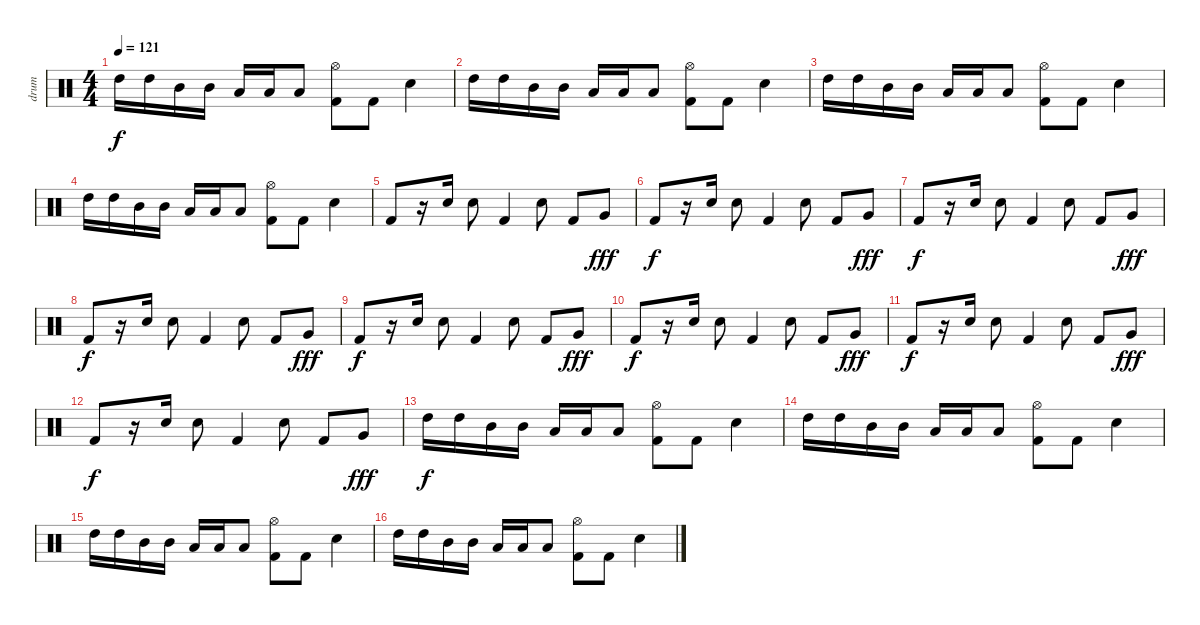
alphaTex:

\track ("drum" "drum") {instrument percussion}
\staff {score}
\articulation defaults
\ts (4 4)
\tempo 121
\clef neutral
\ks c "High Tom (hit)".16{dy f} "High Tom (hit)".16 "Mid Tom (hit)".16 "Mid Tom (hit)".16 "Low Tom (hit)".16 "Low Tom (hit)".16 "Low Tom (hit)".8
("Hi-Hat (open)" "Kick (hit) 2").8 "Kick (hit) 2".8 "Electric Snare (hit)".4 |
"High Tom (hit)".16 "High Tom (hit)".16 "Mid Tom (hit)".16 "Mid Tom (hit)".16 "Low Tom (hit)".16 "Low Tom (hit)".16 "Low Tom (hit)".8 ("Hi-Hat (open)" "Kick (hit) 2").8 "Kick (hit) 2".8 "Electric Snare (hit)".4 |
"High Tom (hit)".16 "High Tom (hit)".16 "Mid Tom (hit)".16 "Mid Tom (hit)".16 "Low Tom (hit)".16 "Low Tom (hit)".16 "Low Tom (hit)".8 ("Hi-Hat (open)" "Kick (hit) 2").8 "Kick (hit) 2".8 "Electric Snare (hit)".4 |
"High Tom (hit)".16 "High Tom (hit)".16 "Mid Tom (hit)".16 "Mid Tom (hit)".16 "Low Tom (hit)".16 "Low Tom (hit)".16 "Low Tom (hit)".8 ("Hi-Hat (open)" "Kick (hit) 2").8 "Kick (hit) 2".8 "Electric Snare (hit)".4 |
"Kick (hit) 2".8 r.16 "Electric Snare (hit)".16 "Electric Snare (hit)".8 "Kick (hit) 2".4 "Electric Snare (hit)".8 "Kick (hit) 2".8 "Very Low Tom (hit)".8{dy fff} |
"Kick (hit) 2".8{dy f} r.16 "Electric Snare (hit)".16 "Electric Snare (hit)".8 "Kick (hit) 2".4 "Electric Snare (hit)".8 "Kick (hit) 2".8 "Very Low Tom (hit)".8{dy fff} |
"Kick (hit) 2".8{dy f} r.16 "Electric Snare (hit)".16 "Electric Snare (hit)".8 "Kick (hit) 2".4 "Electric Snare (hit)".8 "Kick (hit) 2".8 "Very Low Tom (hit)".8{dy fff} |
"Kick (hit) 2".8{dy f} r.16 "Electric Snare (hit)".16 "Electric Snare (hit)".8 "Kick (hit) 2".4 "Electric Snare (hit)".8 "Kick (hit) 2".8 "Very Low Tom (hit)".8{dy fff} |
"Kick (hit) 2".8{dy f} r.16 "Electric Snare (hit)".16 "Electric Snare (hit)".8 "Kick (hit) 2".4 "Electric Snare (hit)".8 "Kick (hit) 2".8 "Very Low Tom (hit)".8{dy fff} |
"Kick (hit) 2".8{dy f} r.16 "Electric Snare (hit)".16 "Electric Snare (hit)".8 "Kick (hit) 2".4 "Electric Snare (hit)".8 "Kick (hit) 2".8 "Very Low Tom (hit)".8{dy fff} |
"Kick (hit) 2".8{dy f} r.16 "Electric Snare (hit)".16 "Electric Snare (hit)".8 "Kick (hit) 2".4 "Electric Snare (hit)".8 "Kick (hit) 2".8 "Very Low Tom (hit)".8{dy fff} |
"Kick (hit) 2".8{dy f} r.16 "Electric Snare (hit)".16 "Electric Snare (hit)".8 "Kick (hit) 2".4 "Electric Snare (hit)".8 "Kick (hit) 2".8 "Very Low Tom (hit)".8{dy fff} |
"High Tom (hit)".16{dy f} "High Tom (hit)".16 "Mid Tom (hit)".16 "Mid Tom (hit)".16 "Low Tom (hit)".16 "Low Tom (hit)".16 "Low Tom (hit)".8 ("Hi-Hat (open)" "Kick (hit) 2").8 "Kick (hit) 2".8 "Electric Snare (hit)".4 |
"High Tom (hit)".16 "High Tom (hit)".16 "Mid Tom (hit)".16 "Mid Tom (hit)".16 "Low Tom (hit)".16 "Low Tom (hit)".16 "Low Tom (hit)".8 ("Hi-Hat (open)" "Kick (hit) 2").8 "Kick (hit) 2".8 "Electric Snare (hit)".4 |
"High Tom (hit)".16 "High Tom (hit)".16 "Mid Tom (hit)".16 "Mid Tom (hit)".16 "Low Tom (hit)".16 "Low Tom (hit)".16 "Low Tom (hit)".8 ("Hi-Hat (open)" "Kick (hit) 2").8 "Kick (hit) 2".8 "Electric Snare (hit)".4 |
"High Tom (hit)".16 "High Tom (hit)".16 "Mid Tom (hit)".16 "Mid Tom (hit)".16 "Low Tom (hit)".16 "Low Tom (hit)".16 "Low Tom (hit)".8 ("Hi-Hat (open)" "Kick (hit) 2").8 "Kick (hit) 2".8 "Electric Snare (hit)".4
